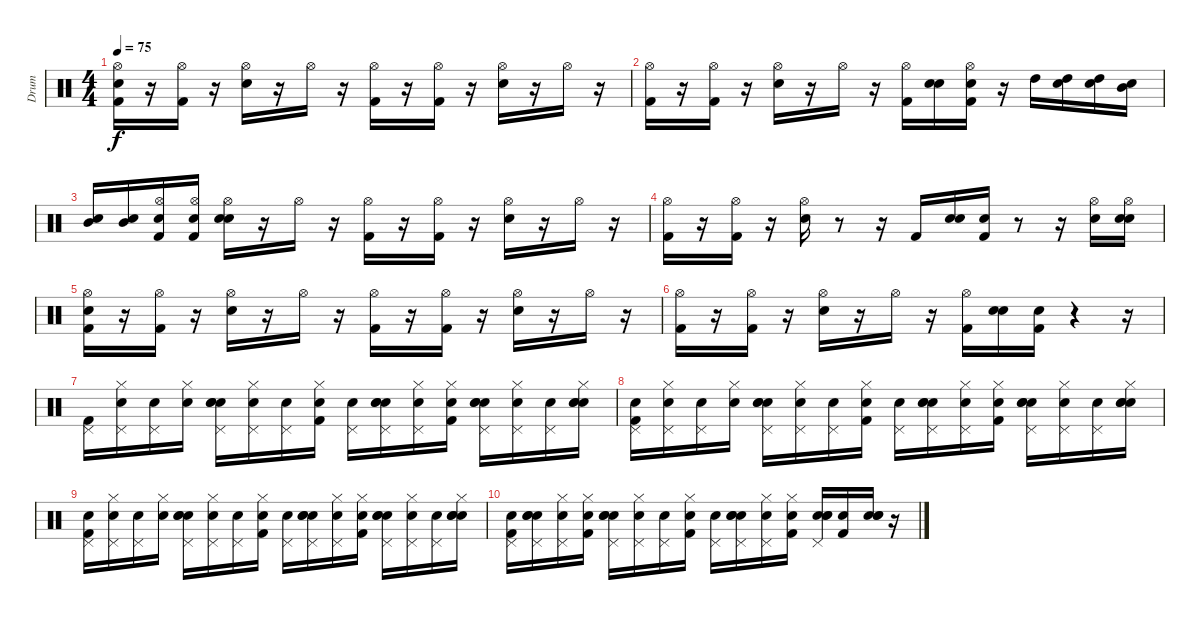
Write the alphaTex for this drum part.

\track ("Drum" "Drum") {instrument percussion}
\staff {score}
\articulation defaults
\ts (4 4)
\tempo 75
\clef neutral
\ks c
("Snare (hit)" "Hi-Hat (open)" "Kick (hit) 2").16{dy f} r.16 ("Hi-Hat (open)" "Kick (hit) 2").16 r.16 ("Hi-Hat (open)" "Snare (hit) 2").16 r.16 "Hi-Hat (open)".16 r.16 ("Kick (hit) 2" "Hi-Hat (open)").16 r.16 ("Kick (hit) 2" "Hi-Hat (open)").16 r.16 ("Snare (hit) 2" "Hi-Hat (open)").16 r.16 "Hi-Hat (open)".16 r.16 |
("Hi-Hat (open)" "Kick (hit) 2").16 r.16 ("Hi-Hat (open)" "Kick (hit) 2").16 r.16 ("Snare (hit) 2" "Hi-Hat (open)").16 r.16 "Hi-Hat (open)".16 r.16 ("Hi-Hat (open)" "Kick (hit) 2").16 ("Snare (hit)" "Electric Snare (hit)").16 ("Snare (hit)" "Kick (hit) 2" "Hi-Hat (open)").16 r.16 "High Tom (hit)".16 ("Snare (hit)" "High Tom (hit)").16 ("Snare (hit)" "High Tom (hit)").16 ("Snare (hit)" "Mid Tom (hit)").16 |
("Snare (hit)" "Mid Tom (hit)").16 ("Snare (hit)" "Mid Tom (hit)").16 ("Snare (hit)" "Hi-Hat (open)" "Kick (hit) 2").16 ("Snare (hit)" "Hi-Hat (open)" "Kick (hit) 2").16 ("Snare (hit)" "Hi-Hat (open)" "Snare (hit) 2").16 r.16 "Hi-Hat (open)".16 r.16 ("Kick (hit) 2" "Hi-Hat (open)").16 r.16 ("Kick (hit) 2" "Hi-Hat (open)").16 r.16 ("Snare (hit) 2" "Hi-Hat (open)").16 r.16 "Hi-Hat (open)".16 r.16 |
("Hi-Hat (open)" "Kick (hit) 2").16 r.16 ("Hi-Hat (open)" "Kick (hit) 2").16 r.16 ("Snare (hit) 2" "Hi-Hat (open)").16 r.8 r.16 "Kick (hit) 2".16 ("Snare (hit)" "Electric Snare (hit)").16 ("Snare (hit)" "Kick (hit) 2").16 r.8 r.16 ("Hi-Hat (open)" "Snare (hit) 2").16 ("Snare (hit)" "Hi-Hat (open)" "Snare (hit) 2").16 |
("Snare (hit)" "Hi-Hat (open)" "Kick (hit) 2").16 r.16 ("Hi-Hat (open)" "Kick (hit) 2").16 r.16 ("Hi-Hat (open)" "Snare (hit) 2").16 r.16 "Hi-Hat (open)".16 r.16 ("Kick (hit) 2" "Hi-Hat (open)").16 r.16 ("Kick (hit) 2" "Hi-Hat (open)").16 r.16 ("Snare (hit) 2" "Hi-Hat (open)").16 r.16 "Hi-Hat (open)".16 r.16 |
("Hi-Hat (open)" "Kick (hit) 2").16 r.16 ("Hi-Hat (open)" "Kick (hit) 2").16 r.16 ("Snare (hit) 2" "Hi-Hat (open)").16 r.16 "Hi-Hat (open)".16 r.16 ("Hi-Hat (open)" "Kick (hit) 2").16 ("Snare (hit)" "Electric Snare (hit)").16 ("Snare (hit)" "Kick (hit) 2").16 r.4 r.16 |
("Pedal Hi-Hat (hit)" "Kick (hit) 2").16 ("Snare (hit)" "Pedal Hi-Hat (hit)" "Hi-Hat (closed)").16 ("Snare (hit)" "Pedal Hi-Hat (hit)").16 ("Snare (hit)" "Hi-Hat (closed)").16 ("Snare (hit)" "Pedal Hi-Hat (hit)" "Hand Clap (hit)" "Electric Snare (hit)").16 ("Snare (hit)" "Pedal Hi-Hat (hit)" "Hi-Hat (closed)").16 ("Snare (hit)" "Pedal Hi-Hat (hit)").16 ("Snare (hit)" "Hi-Hat (closed)" "Kick (hit) 2").16 ("Snare (hit)" "Pedal Hi-Hat (hit)").16 ("Snare (hit)" "Pedal Hi-Hat (hit)" "Hand Clap (hit)" "Electric Snare (hit)").16 ("Snare (hit)" "Pedal Hi-Hat (hit)" "Hi-Hat (closed)").16 ("Snare (hit)" "Hi-Hat (closed)" "Kick (hit) 2").16 ("Snare (hit)" "Pedal Hi-Hat (hit)" "Hand Clap (hit)" "Electric Snare (hit)").16 ("Snare (hit)" "Pedal Hi-Hat (hit)" "Hi-Hat (closed)").16 ("Snare (hit)" "Pedal Hi-Hat (hit)").16 ("Snare (hit)" "Hand Clap (hit)" "Electric Snare (hit)" "Hi-Hat (closed)").16 |
("Snare (hit)" "Pedal Hi-Hat (hit)" "Kick (hit) 2").16 ("Snare (hit)" "Pedal Hi-Hat (hit)" "Hi-Hat (closed)").16 ("Snare (hit)" "Pedal Hi-Hat (hit)").16 ("Snare (hit)" "Hi-Hat (closed)").16 ("Snare (hit)" "Pedal Hi-Hat (hit)" "Hand Clap (hit)" "Electric Snare (hit)").16 ("Snare (hit)" "Pedal Hi-Hat (hit)" "Hi-Hat (closed)").16 ("Snare (hit)" "Pedal Hi-Hat (hit)").16 ("Snare (hit)" "Hi-Hat (closed)" "Kick (hit) 2").16 ("Snare (hit)" "Pedal Hi-Hat (hit)").16 ("Snare (hit)" "Pedal Hi-Hat (hit)" "Hand Clap (hit)" "Electric Snare (hit)").16 ("Snare (hit)" "Pedal Hi-Hat (hit)" "Hi-Hat (closed)").16 ("Snare (hit)" "Hi-Hat (closed)" "Kick (hit) 2").16 ("Snare (hit)" "Pedal Hi-Hat (hit)" "Hand Clap (hit)" "Electric Snare (hit)").16 ("Snare (hit)" "Pedal Hi-Hat (hit)" "Hi-Hat (closed)").16 ("Snare (hit)" "Pedal Hi-Hat (hit)").16 ("Snare (hit)" "Hand Clap (hit)" "Electric Snare (hit)" "Hi-Hat (closed)").16 |
("Snare (hit)" "Pedal Hi-Hat (hit)" "Kick (hit) 2").16 ("Snare (hit)" "Pedal Hi-Hat (hit)" "Hi-Hat (closed)").16 ("Snare (hit)" "Pedal Hi-Hat (hit)").16 ("Snare (hit)" "Hi-Hat (closed)").16 ("Snare (hit)" "Pedal Hi-Hat (hit)" "Hand Clap (hit)" "Electric Snare (hit)").16 ("Snare (hit)" "Pedal Hi-Hat (hit)" "Hi-Hat (closed)").16 ("Snare (hit)" "Pedal Hi-Hat (hit)").16 ("Snare (hit)" "Hi-Hat (closed)" "Kick (hit) 2").16 ("Snare (hit)" "Pedal Hi-Hat (hit)").16 ("Snare (hit)" "Pedal Hi-Hat (hit)" "Hand Clap (hit)" "Electric Snare (hit)").16 ("Snare (hit)" "Pedal Hi-Hat (hit)" "Hi-Hat (closed)").16 ("Snare (hit)" "Hi-Hat (closed)" "Kick (hit) 2").16 ("Snare (hit)" "Pedal Hi-Hat (hit)" "Hand Clap (hit)" "Electric Snare (hit)").16 ("Snare (hit)" "Pedal Hi-Hat (hit)" "Hi-Hat (closed)").16 ("Snare (hit)" "Pedal Hi-Hat (hit)").16 ("Snare (hit)" "Hand Clap (hit)" "Electric Snare (hit)" "Hi-Hat (closed)").16 |
("Snare (hit)" "Pedal Hi-Hat (hit)" "Kick (hit) 2").16 ("Snare (hit)" "Pedal Hi-Hat (hit)" "Hand Clap (hit)" "Electric Snare (hit)").16 ("Snare (hit)" "Pedal Hi-Hat (hit)" "Hi-Hat (closed)").16 ("Snare (hit)" "Kick (hit) 2" "Hi-Hat (closed)").16 ("Snare (hit)" "Pedal Hi-Hat (hit)" "Hand Clap (hit)" "Electric Snare (hit)").16 ("Snare (hit)" "Pedal Hi-Hat (hit)" "Hi-Hat (closed)").16 ("Snare (hit)" "Pedal Hi-Hat (hit)").16 ("Snare (hit)" "Hi-Hat (closed)" "Kick (hit) 2").16 ("Snare (hit)" "Pedal Hi-Hat (hit)").16 ("Snare (hit)" "Pedal Hi-Hat (hit)" "Hand Clap (hit)" "Electric Snare (hit)").16 ("Snare (hit)" "Pedal Hi-Hat (hit)" "Hi-Hat (closed)").16 ("Snare (hit)" "Hi-Hat (closed)" "Kick (hit) 2").16 ("Snare (hit)" "Pedal Hi-Hat (hit)" "Hand Clap (hit)" "Electric Snare (hit)").16 ("Snare (hit)" "Kick (hit) 2").16 ("Snare (hit)" "Electric Snare (hit)" "Hand Clap (hit)").16 r.16
